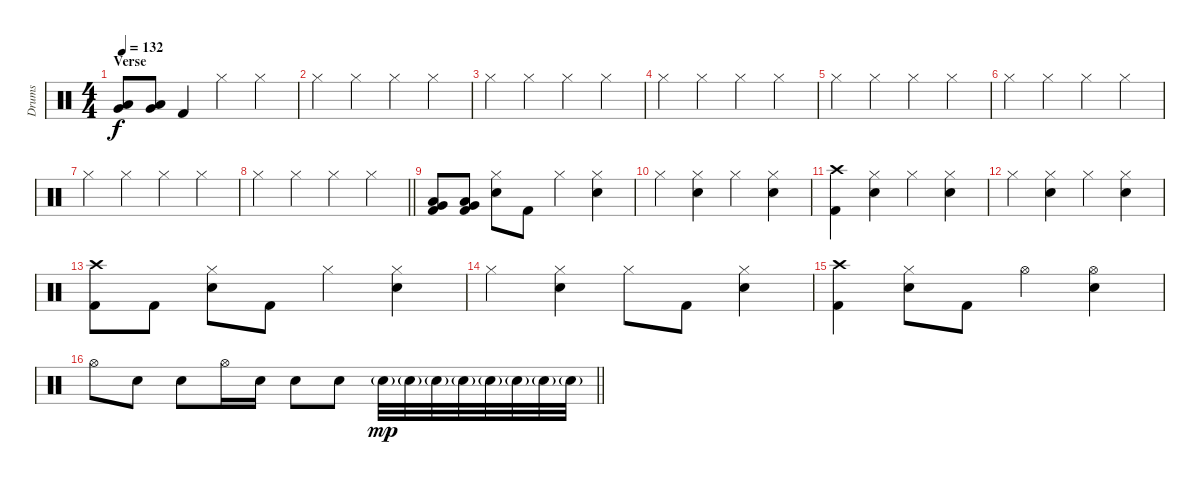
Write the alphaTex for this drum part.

\track ("Drums" "Drums") {instrument percussion}
\staff {score}
\articulation defaults
\ts (4 4)
\section ("" "Verse")
\tempo 132
\clef neutral
\ks c
("Very Low Tom (hit)" "Low Tom (hit)").8{dy f} ("Very Low Tom (hit)" "Low Tom (hit)").8 "Kick (hit) 2".4 "Hi-Hat (closed)".4 "Hi-Hat (closed)".4 |
"Hi-Hat (closed)".4 "Hi-Hat (closed)".4 "Hi-Hat (closed)".4 "Hi-Hat (closed)".4 |
"Hi-Hat (closed)".4 "Hi-Hat (closed)".4 "Hi-Hat (closed)".4 "Hi-Hat (closed)".4 |
"Hi-Hat (closed)".4 "Hi-Hat (closed)".4 "Hi-Hat (closed)".4 "Hi-Hat (closed)".4 |
"Hi-Hat (closed)".4 "Hi-Hat (closed)".4 "Hi-Hat (closed)".4 "Hi-Hat (closed)".4 |
"Hi-Hat (closed)".4 "Hi-Hat (closed)".4 "Hi-Hat (closed)".4 "Hi-Hat (closed)".4 |
"Hi-Hat (closed)".4 "Hi-Hat (closed)".4 "Hi-Hat (closed)".4 "Hi-Hat (closed)".4 |
\barLineRight lightlight "Hi-Hat (closed)".4 "Hi-Hat (closed)".4 "Hi-Hat (closed)".4 "Hi-Hat (closed)".4
|
\section ("" "")
("Very Low Tom (hit)" "Low Tom (hit)" "Kick (hit) 2").8 ("Very Low Tom (hit)" "Low Tom (hit)" "Kick (hit) 2").8 ("Hi-Hat (closed)" "Snare (hit) 2").8 "Kick (hit) 2".8 "Hi-Hat (closed)".4 ("Hi-Hat (closed)" "Snare (hit) 2").4 |
"Hi-Hat (closed)".4 ("Hi-Hat (closed)" "Snare (hit) 2").4 "Hi-Hat (closed)".4 ("Hi-Hat (closed)" "Snare (hit) 2").4 |
("Crash high (hit)" "Kick (hit) 2").4 ("Hi-Hat (closed)" "Snare (hit) 2").4 "Hi-Hat (closed)".4 ("Hi-Hat (closed)" "Snare (hit) 2").4 |
"Hi-Hat (closed)".4 ("Hi-Hat (closed)" "Snare (hit) 2").4 "Hi-Hat (closed)".4 ("Hi-Hat (closed)" "Snare (hit) 2").4 |
("Crash high (hit)" "Kick (hit) 2").8 "Kick (hit) 2".8 ("Hi-Hat (closed)" "Snare (hit) 2").8 "Kick (hit) 2".8 "Hi-Hat (closed)".4 ("Hi-Hat (closed)" "Snare (hit) 2").4 |
"Hi-Hat (closed)".4 ("Hi-Hat (closed)" "Snare (hit) 2").4 "Hi-Hat (closed)".8 "Kick (hit) 2".8 ("Hi-Hat (closed)" "Snare (hit) 2").4 |
("Crash high (hit)" "Kick (hit) 2").4 ("Hi-Hat (closed)" "Snare (hit) 2").8 "Kick (hit) 2".8 "Hi-Hat (open)".4 ("Hi-Hat (open)" "Snare (hit) 2").4 |
\barLineRight lightlight "Hi-Hat (open)".8 "Snare (hit) 2".8 "Snare (hit) 2".8 "Hi-Hat (open)".16 "Snare (hit) 2".16 "Snare (hit) 2".8 "Snare (hit) 2".8 "Snare (hit) 2"{g}.32{dy mp} "Snare (hit) 2"{g}.32 "Snare (hit) 2"{g}.32 "Snare (hit) 2"{g}.32 "Snare (hit) 2"{g}.32 "Snare (hit) 2"{g}.32 "Snare (hit) 2"{g}.32 "Snare (hit) 2"{g}.32
